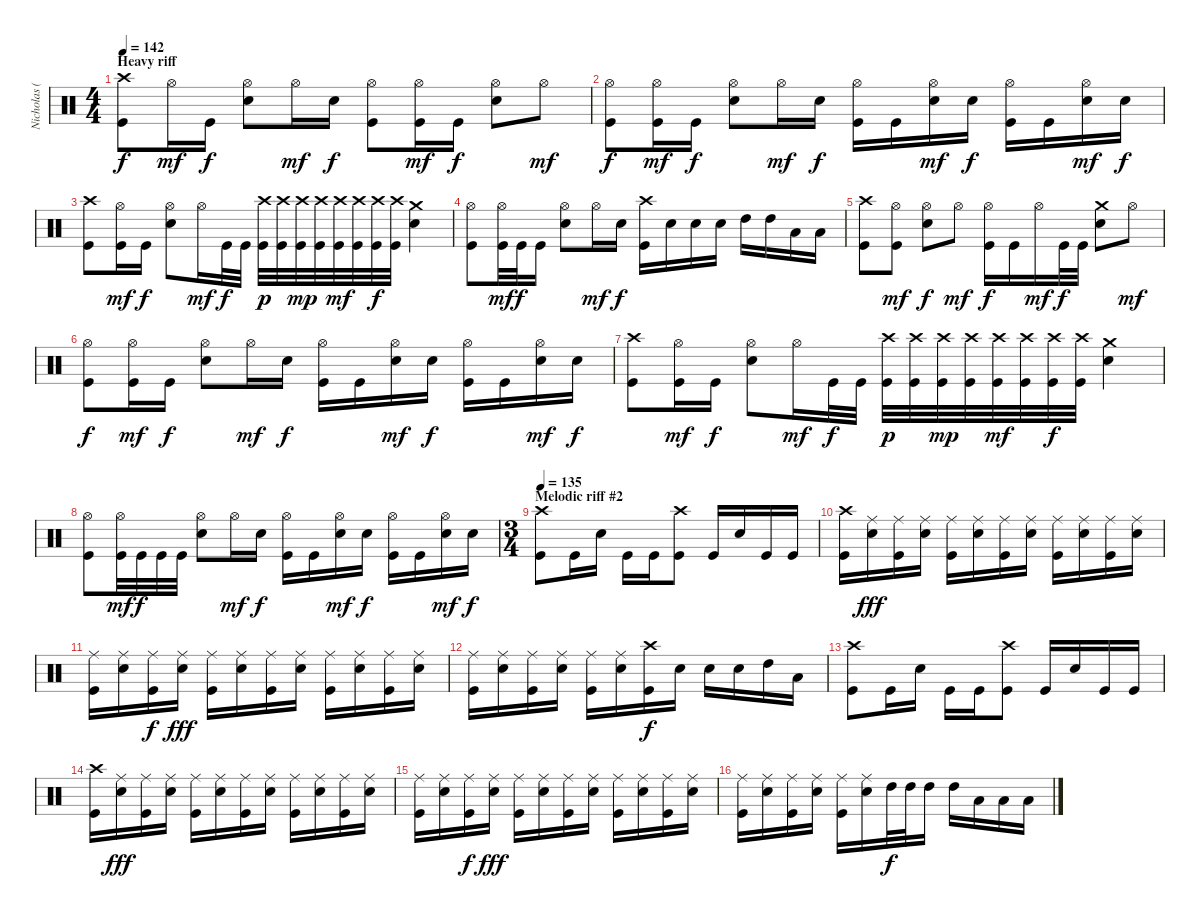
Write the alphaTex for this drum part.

\track ("Nicholas (Drums)" "Nicholas (") {instrument percussion}
\staff {score}
\articulation defaults
\ts (4 4)
\section ("" "Heavy riff")
\tempo 142
\clef neutral
\ks c
("Crash high (hit)" "Kick (hit)").8{dy f} "Hi-Hat (open)".16{dy mf} "Kick (hit)".16{dy f} ("Hi-Hat (open)" "Electric Snare (hit)").8 "Hi-Hat (open)".16{dy mf} "Electric Snare (hit)".16{dy f} ("Hi-Hat (open)" "Kick (hit)").8 ("Hi-Hat (open)" "Kick (hit)").16{dy mf} "Kick (hit)".16{dy f} ("Hi-Hat (open)" "Electric Snare (hit)").8 "Hi-Hat (open)".8{dy mf} |
("Hi-Hat (open)" "Kick (hit)").8{dy f} ("Hi-Hat (open)" "Kick (hit)").16{dy mf} "Kick (hit)".16{dy f} ("Hi-Hat (open)" "Electric Snare (hit)").8 "Hi-Hat (open)".16{dy mf} "Electric Snare (hit)".16{dy f} ("Hi-Hat (open)" "Kick (hit)").16 "Kick (hit)".16 ("Hi-Hat (open)" "Electric Snare (hit)").16{dy mf} "Electric Snare (hit)".16{dy f} ("Hi-Hat (open)" "Kick (hit)").16 "Kick (hit)".16 ("Hi-Hat (open)" "Electric Snare (hit)").16{dy mf} "Electric Snare (hit)".16{dy f} |
("Crash high (hit)" "Kick (hit)").8 ("Hi-Hat (open)" "Kick (hit)").16{dy mf} "Kick (hit)".16{dy f} ("Hi-Hat (open)" "Electric Snare (hit)").8 "Hi-Hat (open)".16{dy mf} "Kick (hit)".32{dy f} "Kick (hit)".32 ("Crash high (hit)" "Kick (hit)").32{dy p} ("Crash high (hit)" "Kick (hit)").32 ("Crash high (hit)" "Kick (hit)").32{dy mp} ("Crash high (hit)" "Kick (hit)").32 ("Crash high (hit)" "Kick (hit)").32{dy mf} ("Crash high (hit)" "Kick (hit)").32 ("Crash high (hit)" "Kick (hit)").32{dy f} ("Crash high (hit)" "Kick (hit)").32 ("Crash medium (hit)" "Electric Snare (hit)").4 |
("Hi-Hat (open)" "Kick (hit)").8 ("Hi-Hat (open)" "Kick (hit)").32{dy mf} "Kick (hit)".32{dy f} "Kick (hit)".16 ("Hi-Hat (open)" "Electric Snare (hit)").8 "Hi-Hat (open)".16{dy mf} "Electric Snare (hit)".16{dy f} ("Crash high (hit)" "Kick (hit)").16 "Electric Snare (hit)".16 "Electric Snare (hit)".16 "Electric Snare (hit)".16 "High Tom (hit)".16 "High Tom (hit)".16 "Low Tom (hit)".16 "Low Tom (hit)".16 |
("Crash high (hit)" "Kick (hit)").8 ("Hi-Hat (open)" "Kick (hit)").8{dy mf} ("Hi-Hat (open)" "Electric Snare (hit)").8{dy f} "Hi-Hat (open)".8{dy mf} ("Hi-Hat (open)" "Kick (hit)").16{dy f} "Kick (hit)".16 "Hi-Hat (open)".16{dy mf} "Kick (hit)".32{dy f} "Kick (hit)".32 ("Crash medium (hit)" "Electric Snare (hit)").8 "Hi-Hat (open)".8{dy mf} |
("Hi-Hat (open)" "Kick (hit)").8{dy f} ("Hi-Hat (open)" "Kick (hit)").16{dy mf} "Kick (hit)".16{dy f} ("Hi-Hat (open)" "Electric Snare (hit)").8 "Hi-Hat (open)".16{dy mf} "Electric Snare (hit)".16{dy f} ("Hi-Hat (open)" "Kick (hit)").16 "Kick (hit)".16 ("Hi-Hat (open)" "Electric Snare (hit)").16{dy mf} "Electric Snare (hit)".16{dy f} ("Hi-Hat (open)" "Kick (hit)").16 "Kick (hit)".16 ("Hi-Hat (open)" "Electric Snare (hit)").16{dy mf} "Electric Snare (hit)".16{dy f} |
("Crash high (hit)" "Kick (hit)").8 ("Hi-Hat (open)" "Kick (hit)").16{dy mf} "Kick (hit)".16{dy f} ("Hi-Hat (open)" "Electric Snare (hit)").8 "Hi-Hat (open)".16{dy mf} "Kick (hit)".32{dy f} "Kick (hit)".32 ("Crash high (hit)" "Kick (hit)").32{dy p} ("Crash high (hit)" "Kick (hit)").32 ("Crash high (hit)" "Kick (hit)").32{dy mp} ("Crash high (hit)" "Kick (hit)").32 ("Crash high (hit)" "Kick (hit)").32{dy mf} ("Crash high (hit)" "Kick (hit)").32 ("Crash high (hit)" "Kick (hit)").32{dy f} ("Crash high (hit)" "Kick (hit)").32 ("Crash medium (hit)" "Electric Snare (hit)").4 |
("Hi-Hat (open)" "Kick (hit)").8 ("Hi-Hat (open)" "Kick (hit)").32{dy mf} "Kick (hit)".32{dy f} "Kick (hit)".32 "Kick (hit)".32 ("Hi-Hat (open)" "Electric Snare (hit)").8 "Hi-Hat (open)".16{dy mf} "Electric Snare (hit)".16{dy f} ("Hi-Hat (open)" "Kick (hit)").16 "Kick (hit)".16 ("Hi-Hat (open)" "Electric Snare (hit)").16{dy mf} "Electric Snare (hit)".16{dy f} ("Hi-Hat (open)" "Kick (hit)").16 "Kick (hit)".16 ("Hi-Hat (open)" "Electric Snare (hit)").16{dy mf} "Electric Snare (hit)".16{dy f} |
\ts (3 4)
\section ("" "Melodic riff #2")
\tempo 135
("Crash high (hit)" "Kick (hit)").8 "Kick (hit)".16 "Electric Snare (hit)".16 "Kick (hit)".16 "Kick (hit)".16 ("Crash high (hit)" "Kick (hit)").8 "Kick (hit)".16 "Electric Snare (hit)".16 "Kick (hit)".16 "Kick (hit)".16 |
("Crash high (hit)" "Kick (hit)").16 ("Ride (middle)" "Electric Snare (hit)").16{dy fff} ("Ride (middle)" "Kick (hit)").16 ("Ride (middle)" "Electric Snare (hit)").16 ("Ride (middle)" "Kick (hit)").16 ("Ride (middle)" "Electric Snare (hit)").16 ("Ride (middle)" "Kick (hit)").16 ("Ride (middle)" "Electric Snare (hit)").16 ("Ride (middle)" "Kick (hit)").16 ("Ride (middle)" "Electric Snare (hit)").16 ("Ride (middle)" "Kick (hit)").16 ("Ride (middle)" "Electric Snare (hit)").16 |
("Ride (middle)" "Kick (hit)").16 ("Ride (middle)" "Electric Snare (hit)").16 ("Ride (middle)" "Kick (hit)").16{dy f} ("Ride (middle)" "Electric Snare (hit)").16{dy fff} ("Ride (middle)" "Kick (hit)").16 ("Ride (middle)" "Electric Snare (hit)").16 ("Ride (middle)" "Kick (hit)").16 ("Ride (middle)" "Electric Snare (hit)").16 ("Ride (middle)" "Kick (hit)").16 ("Ride (middle)" "Electric Snare (hit)").16 ("Ride (middle)" "Kick (hit)").16 ("Ride (middle)" "Electric Snare (hit)").16 |
("Ride (middle)" "Kick (hit)").16 ("Ride (middle)" "Electric Snare (hit)").16 ("Ride (middle)" "Kick (hit)").16 ("Ride (middle)" "Electric Snare (hit)").16 ("Ride (middle)" "Kick (hit)").16 ("Ride (middle)" "Electric Snare (hit)").16 ("Crash high (hit)" "Kick (hit)").16{dy f} "Electric Snare (hit)".16 "Electric Snare (hit)".16 "Electric Snare (hit)".16 "High Tom (hit)".16 "Low Tom (hit)".16 |
("Crash high (hit)" "Kick (hit)").8 "Kick (hit)".16 "Electric Snare (hit)".16 "Kick (hit)".16 "Kick (hit)".16 ("Crash high (hit)" "Kick (hit)").8 "Kick (hit)".16 "Electric Snare (hit)".16 "Kick (hit)".16 "Kick (hit)".16 |
("Crash high (hit)" "Kick (hit)").16 ("Ride (middle)" "Electric Snare (hit)").16{dy fff} ("Ride (middle)" "Kick (hit)").16 ("Ride (middle)" "Electric Snare (hit)").16 ("Ride (middle)" "Kick (hit)").16 ("Ride (middle)" "Electric Snare (hit)").16 ("Ride (middle)" "Kick (hit)").16 ("Ride (middle)" "Electric Snare (hit)").16 ("Ride (middle)" "Kick (hit)").16 ("Ride (middle)" "Electric Snare (hit)").16 ("Ride (middle)" "Kick (hit)").16 ("Ride (middle)" "Electric Snare (hit)").16 |
("Ride (middle)" "Kick (hit)").16 ("Ride (middle)" "Electric Snare (hit)").16 ("Ride (middle)" "Kick (hit)").16{dy f} ("Ride (middle)" "Electric Snare (hit)").16{dy fff} ("Ride (middle)" "Kick (hit)").16 ("Ride (middle)" "Electric Snare (hit)").16 ("Ride (middle)" "Kick (hit)").16 ("Ride (middle)" "Electric Snare (hit)").16 ("Ride (middle)" "Kick (hit)").16 ("Ride (middle)" "Electric Snare (hit)").16 ("Ride (middle)" "Kick (hit)").16 ("Ride (middle)" "Electric Snare (hit)").16 |
("Ride (middle)" "Kick (hit)").16 ("Ride (middle)" "Electric Snare (hit)").16 ("Ride (middle)" "Kick (hit)").16 ("Ride (middle)" "Electric Snare (hit)").16 ("Ride (middle)" "Kick (hit)").16 ("Ride (middle)" "Electric Snare (hit)").16 "High Tom (hit)".32{dy f} "High Tom (hit)".32 "High Tom (hit)".16 "High Tom (hit)".16 "Low Tom (hit)".16 "Low Tom (hit)".16 "Low Tom (hit)".16
